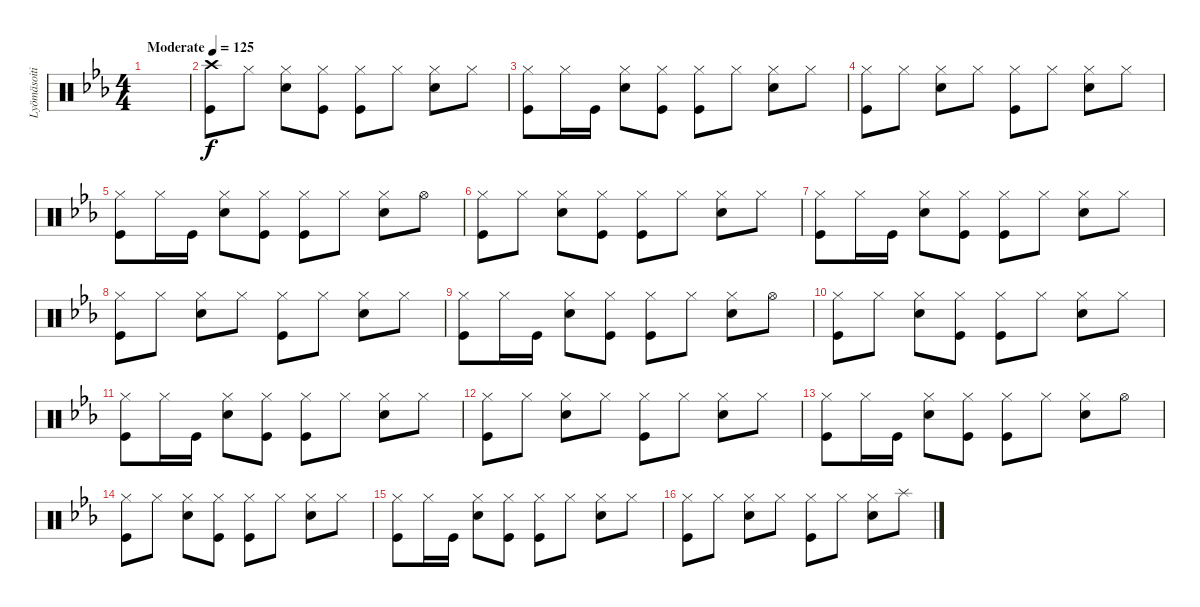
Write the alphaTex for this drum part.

\track ("Lyömäsoitin" "Lyömäsoiti") {instrument percussion}
\staff {score}
\articulation defaults
\ts (4 4)
\tempo (125 "Moderate")
\clef neutral
\ks cminor
|
("Crash high (hit)" "Kick (hit)").8 "Hi-Hat (closed)".8 ("Hi-Hat (closed)" "Snare (hit) 2").8 ("Hi-Hat (closed)" "Kick (hit)").8 ("Hi-Hat (closed)" "Kick (hit)").8 "Hi-Hat (closed)".8 ("Hi-Hat (closed)" "Snare (hit) 2").8 "Hi-Hat (closed)".8 |
("Hi-Hat (closed)" "Kick (hit)").8 "Hi-Hat (closed)".16 "Kick (hit)".16 ("Hi-Hat (closed)" "Snare (hit) 2").8 ("Hi-Hat (closed)" "Kick (hit)").8 ("Hi-Hat (closed)" "Kick (hit)").8 "Hi-Hat (closed)".8 ("Hi-Hat (closed)" "Snare (hit) 2").8 "Hi-Hat (closed)".8 |
("Hi-Hat (closed)" "Kick (hit)").8 "Hi-Hat (closed)".8 ("Hi-Hat (closed)" "Snare (hit) 2").8 "Hi-Hat (closed)".8 ("Hi-Hat (closed)" "Kick (hit)").8 "Hi-Hat (closed)".8 ("Hi-Hat (closed)" "Snare (hit) 2").8 "Hi-Hat (closed)".8 |
("Hi-Hat (closed)" "Kick (hit)").8 "Hi-Hat (closed)".16 "Kick (hit)".16 ("Hi-Hat (closed)" "Snare (hit) 2").8 ("Hi-Hat (closed)" "Kick (hit)").8 ("Hi-Hat (closed)" "Kick (hit)").8 "Hi-Hat (closed)".8 ("Hi-Hat (closed)" "Snare (hit) 2").8 "Hi-Hat (open)".8 |
("Hi-Hat (closed)" "Kick (hit)").8 "Hi-Hat (closed)".8 ("Hi-Hat (closed)" "Snare (hit) 2").8 ("Hi-Hat (closed)" "Kick (hit)").8 ("Hi-Hat (closed)" "Kick (hit)").8 "Hi-Hat (closed)".8 ("Hi-Hat (closed)" "Snare (hit) 2").8 "Hi-Hat (closed)".8 |
("Hi-Hat (closed)" "Kick (hit)").8 "Hi-Hat (closed)".16 "Kick (hit)".16 ("Hi-Hat (closed)" "Snare (hit) 2").8 ("Hi-Hat (closed)" "Kick (hit)").8 ("Hi-Hat (closed)" "Kick (hit)").8 "Hi-Hat (closed)".8 ("Hi-Hat (closed)" "Snare (hit) 2").8 "Hi-Hat (closed)".8 |
("Hi-Hat (closed)" "Kick (hit)").8 "Hi-Hat (closed)".8 ("Hi-Hat (closed)" "Snare (hit) 2").8 "Hi-Hat (closed)".8 ("Hi-Hat (closed)" "Kick (hit)").8 "Hi-Hat (closed)".8 ("Hi-Hat (closed)" "Snare (hit) 2").8 "Hi-Hat (closed)".8 |
("Hi-Hat (closed)" "Kick (hit)").8 "Hi-Hat (closed)".16 "Kick (hit)".16 ("Hi-Hat (closed)" "Snare (hit) 2").8 ("Hi-Hat (closed)" "Kick (hit)").8 ("Hi-Hat (closed)" "Kick (hit)").8 "Hi-Hat (closed)".8 ("Hi-Hat (closed)" "Snare (hit) 2").8 "Hi-Hat (open)".8 |
("Hi-Hat (closed)" "Kick (hit)").8 "Hi-Hat (closed)".8 ("Hi-Hat (closed)" "Snare (hit) 2").8 ("Hi-Hat (closed)" "Kick (hit)").8 ("Hi-Hat (closed)" "Kick (hit)").8 "Hi-Hat (closed)".8 ("Hi-Hat (closed)" "Snare (hit) 2").8 "Hi-Hat (closed)".8 |
("Hi-Hat (closed)" "Kick (hit)").8 "Hi-Hat (closed)".16 "Kick (hit)".16 ("Hi-Hat (closed)" "Snare (hit) 2").8 ("Hi-Hat (closed)" "Kick (hit)").8 ("Hi-Hat (closed)" "Kick (hit)").8 "Hi-Hat (closed)".8 ("Hi-Hat (closed)" "Snare (hit) 2").8 "Hi-Hat (closed)".8 |
("Hi-Hat (closed)" "Kick (hit)").8 "Hi-Hat (closed)".8 ("Hi-Hat (closed)" "Snare (hit) 2").8 "Hi-Hat (closed)".8 ("Hi-Hat (closed)" "Kick (hit)").8 "Hi-Hat (closed)".8 ("Hi-Hat (closed)" "Snare (hit) 2").8 "Hi-Hat (closed)".8 |
("Hi-Hat (closed)" "Kick (hit)").8 "Hi-Hat (closed)".16 "Kick (hit)".16 ("Hi-Hat (closed)" "Snare (hit) 2").8 ("Hi-Hat (closed)" "Kick (hit)").8 ("Hi-Hat (closed)" "Kick (hit)").8 "Hi-Hat (closed)".8 ("Hi-Hat (closed)" "Snare (hit) 2").8 "Hi-Hat (open)".8 |
("Hi-Hat (closed)" "Kick (hit)").8 "Hi-Hat (closed)".8 ("Hi-Hat (closed)" "Snare (hit) 2").8 ("Hi-Hat (closed)" "Kick (hit)").8 ("Hi-Hat (closed)" "Kick (hit)").8 "Hi-Hat (closed)".8 ("Hi-Hat (closed)" "Snare (hit) 2").8 "Hi-Hat (closed)".8 |
("Hi-Hat (closed)" "Kick (hit)").8 "Hi-Hat (closed)".16 "Kick (hit)".16 ("Hi-Hat (closed)" "Snare (hit) 2").8 ("Hi-Hat (closed)" "Kick (hit)").8 ("Hi-Hat (closed)" "Kick (hit)").8 "Hi-Hat (closed)".8 ("Hi-Hat (closed)" "Snare (hit) 2").8 "Hi-Hat (closed)".8 |
("Hi-Hat (closed)" "Kick (hit)").8 "Hi-Hat (closed)".8 ("Hi-Hat (closed)" "Snare (hit) 2").8 "Hi-Hat (closed)".8 ("Hi-Hat (closed)" "Kick (hit)").8 "Hi-Hat (closed)".8 ("Hi-Hat (closed)" "Snare (hit) 2").8 "Splash (hit)".8
